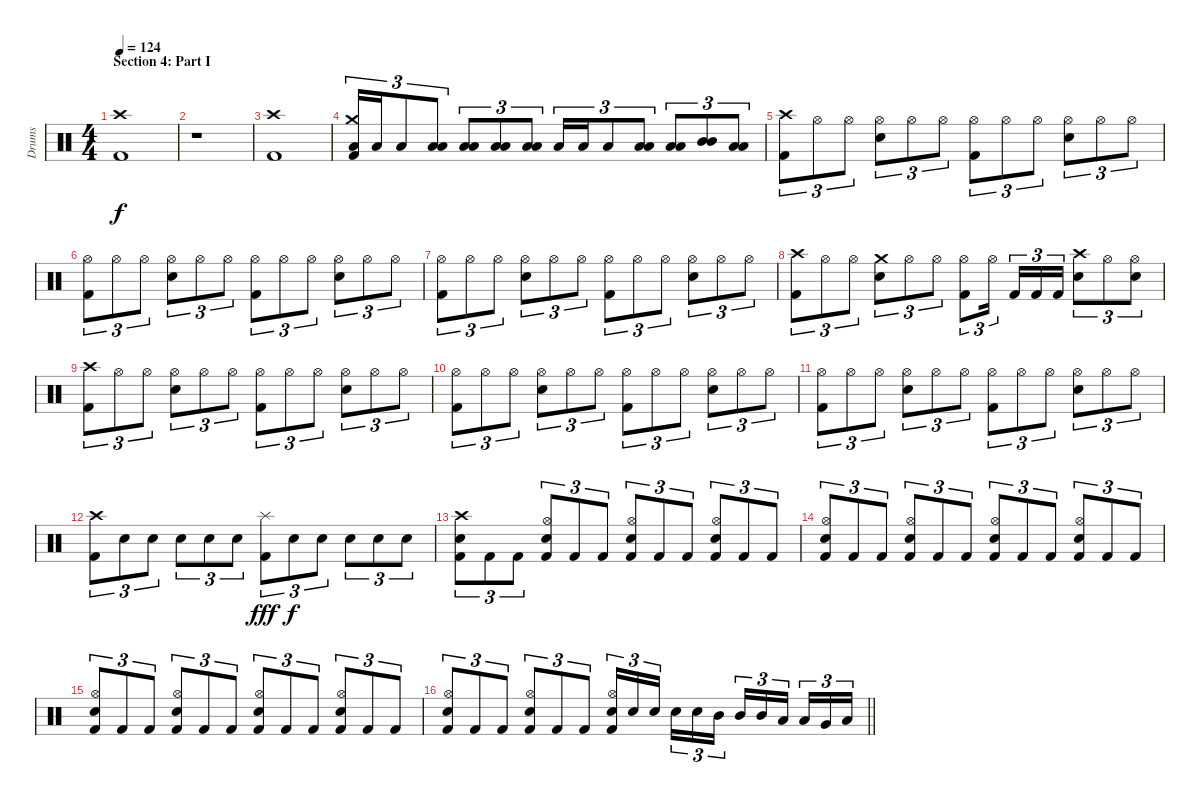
\track ("Drums" "Drums") {instrument percussion}
\staff {score}
\articulation defaults
\ts (4 4)
\section ("" "Section 4: Part I")
\tempo 124
\clef neutral
\ks c
("Crash high (hit)" "Kick (hit) 2").1{dy f} |
r.1 |
("Crash high (hit)" "Kick (hit) 2").1 |
("Crash medium (hit)" "Low Tom (hit)" "Kick (hit) 2").16{tu (3 2)} "Low Tom (hit)".16{tu (3 2)} "Low Tom (hit)".8{tu (3 2)} ("Low Tom (hit)" "Low Tom (hit)").8{tu (3 2) bu 60} ("Low Tom (hit)" "Low Tom (hit)").8{tu (3 2) bu 60} ("Low Tom (hit)" "Low Tom (hit)").8{tu (3 2) bu 60} ("Low Tom (hit)" "Low Tom (hit)").8{tu (3 2) bu 60} "Low Tom (hit)".16{tu (3 2)} "Low Tom (hit)".16{tu (3 2)} "Low Tom (hit)".8{tu (3 2)} ("Low Tom (hit)" "Low Tom (hit)").8{tu (3 2) bu 60} ("Low Tom (hit)" "Low Tom (hit)").8{tu (3 2) bu 60} ("Mid Tom (hit)" "Mid Tom (hit)").8{tu (3 2) bu 60} ("Low Tom (hit)" "Low Tom (hit)").8{tu (3 2) bu 60} |
("Crash high (hit)" "Kick (hit) 2").8{tu (3 2)} "Hi-Hat (open)".8{tu (3 2)} "Hi-Hat (open)".8{tu (3 2)} ("Hi-Hat (open)" "Electric Snare (hit)").8{tu (3 2)} "Hi-Hat (open)".8{tu (3 2)} "Hi-Hat (open)".8{tu (3 2)} ("Hi-Hat (open)" "Kick (hit) 2").8{tu (3 2)} "Hi-Hat (open)".8{tu (3 2)} "Hi-Hat (open)".8{tu (3 2)} ("Hi-Hat (open)" "Electric Snare (hit)").8{tu (3 2)} "Hi-Hat (open)".8{tu (3 2)} "Hi-Hat (open)".8{tu (3 2)} |
("Hi-Hat (open)" "Kick (hit) 2").8{tu (3 2)} "Hi-Hat (open)".8{tu (3 2)} "Hi-Hat (open)".8{tu (3 2)} ("Hi-Hat (open)" "Electric Snare (hit)").8{tu (3 2)} "Hi-Hat (open)".8{tu (3 2)} "Hi-Hat (open)".8{tu (3 2)} ("Hi-Hat (open)" "Kick (hit) 2").8{tu (3 2)} "Hi-Hat (open)".8{tu (3 2)} "Hi-Hat (open)".8{tu (3 2)} ("Hi-Hat (open)" "Electric Snare (hit)").8{tu (3 2)} "Hi-Hat (open)".8{tu (3 2)} "Hi-Hat (open)".8{tu (3 2)} |
("Hi-Hat (open)" "Kick (hit) 2").8{tu (3 2)} "Hi-Hat (open)".8{tu (3 2)} "Hi-Hat (open)".8{tu (3 2)} ("Hi-Hat (open)" "Electric Snare (hit)").8{tu (3 2)} "Hi-Hat (open)".8{tu (3 2)} "Hi-Hat (open)".8{tu (3 2)} ("Hi-Hat (open)" "Kick (hit) 2").8{tu (3 2)} "Hi-Hat (open)".8{tu (3 2)} "Hi-Hat (open)".8{tu (3 2)} ("Hi-Hat (open)" "Electric Snare (hit)").8{tu (3 2)} "Hi-Hat (open)".8{tu (3 2)} "Hi-Hat (open)".8{tu (3 2)} |
("Crash high (hit)" "Kick (hit) 2").8{tu (3 2)} "Hi-Hat (open)".8{tu (3 2)} "Hi-Hat (open)".8{tu (3 2)} ("Crash medium (hit)" "Electric Snare (hit)").8{tu (3 2)} "Hi-Hat (open)".8{tu (3 2)} "Hi-Hat (open)".8{tu (3 2)} ("Hi-Hat (open)" "Kick (hit) 2").8{tu (3 2)} "Hi-Hat (open)".16{tu (3 2) beam splitsecondary} "Kick (hit) 2".16{tu (3 2)} "Kick (hit) 2".16{tu (3 2)} "Kick (hit) 2".16{tu (3 2)} ("Crash high (hit)" "Electric Snare (hit)").8{tu (3 2)} "Hi-Hat (open)".8{tu (3 2)} ("Hi-Hat (open)" "Electric Snare (hit)").8{tu (3 2)} |
("Crash high (hit)" "Kick (hit) 2").8{tu (3 2)} "Hi-Hat (open)".8{tu (3 2)} "Hi-Hat (open)".8{tu (3 2)} ("Hi-Hat (open)" "Electric Snare (hit)").8{tu (3 2)} "Hi-Hat (open)".8{tu (3 2)} "Hi-Hat (open)".8{tu (3 2)} ("Hi-Hat (open)" "Kick (hit) 2").8{tu (3 2)} "Hi-Hat (open)".8{tu (3 2)} "Hi-Hat (open)".8{tu (3 2)} ("Hi-Hat (open)" "Electric Snare (hit)").8{tu (3 2)} "Hi-Hat (open)".8{tu (3 2)} "Hi-Hat (open)".8{tu (3 2)} |
("Hi-Hat (open)" "Kick (hit) 2").8{tu (3 2)} "Hi-Hat (open)".8{tu (3 2)} "Hi-Hat (open)".8{tu (3 2)} ("Hi-Hat (open)" "Electric Snare (hit)").8{tu (3 2)} "Hi-Hat (open)".8{tu (3 2)} "Hi-Hat (open)".8{tu (3 2)} ("Hi-Hat (open)" "Kick (hit) 2").8{tu (3 2)} "Hi-Hat (open)".8{tu (3 2)} "Hi-Hat (open)".8{tu (3 2)} ("Hi-Hat (open)" "Electric Snare (hit)").8{tu (3 2)} "Hi-Hat (open)".8{tu (3 2)} "Hi-Hat (open)".8{tu (3 2)} |
("Hi-Hat (open)" "Kick (hit) 2").8{tu (3 2)} "Hi-Hat (open)".8{tu (3 2)} "Hi-Hat (open)".8{tu (3 2)} ("Hi-Hat (open)" "Electric Snare (hit)").8{tu (3 2)} "Hi-Hat (open)".8{tu (3 2)} "Hi-Hat (open)".8{tu (3 2)} ("Hi-Hat (open)" "Kick (hit) 2").8{tu (3 2)} "Hi-Hat (open)".8{tu (3 2)} "Hi-Hat (open)".8{tu (3 2)} ("Hi-Hat (open)" "Electric Snare (hit)").8{tu (3 2)} "Hi-Hat (open)".8{tu (3 2)} "Hi-Hat (open)".8{tu (3 2)} |
("Crash high (hit)" "Kick (hit) 2").8{tu (3 2)} "Electric Snare (hit)".8{tu (3 2)} "Electric Snare (hit)".8{tu (3 2)} "Electric Snare (hit)".8{tu (3 2)} "Electric Snare (hit)".8{tu (3 2)} "Electric Snare (hit)".8{tu (3 2)} ("Splash (hit)" "Kick (hit) 2").8{tu (3 2) dy fff} "Electric Snare (hit)".8{tu (3 2) dy f} "Electric Snare (hit)".8{tu (3 2)} "Electric Snare (hit)".8{tu (3 2)} "Electric Snare (hit)".8{tu (3 2)} "Electric Snare (hit)".8{tu (3 2)} |
("Crash high (hit)" "Electric Snare (hit)" "Kick (hit) 2").8{tu (3 2)} "Kick (hit) 2".8{tu (3 2)} "Kick (hit) 2".8{tu (3 2)} ("Hi-Hat (open)" "Electric Snare (hit)" "Kick (hit) 2").8{tu (3 2)} "Kick (hit) 2".8{tu (3 2)} "Kick (hit) 2".8{tu (3 2)} ("Hi-Hat (open)" "Electric Snare (hit)" "Kick (hit) 2").8{tu (3 2)} "Kick (hit) 2".8{tu (3 2)} "Kick (hit) 2".8{tu (3 2)} ("Hi-Hat (open)" "Electric Snare (hit)" "Kick (hit) 2").8{tu (3 2)} "Kick (hit) 2".8{tu (3 2)} "Kick (hit) 2".8{tu (3 2)} |
("Hi-Hat (open)" "Electric Snare (hit)" "Kick (hit) 2").8{tu (3 2)} "Kick (hit) 2".8{tu (3 2)} "Kick (hit) 2".8{tu (3 2)} ("Hi-Hat (open)" "Electric Snare (hit)" "Kick (hit) 2").8{tu (3 2)} "Kick (hit) 2".8{tu (3 2)} "Kick (hit) 2".8{tu (3 2)} ("Hi-Hat (open)" "Electric Snare (hit)" "Kick (hit) 2").8{tu (3 2)} "Kick (hit) 2".8{tu (3 2)} "Kick (hit) 2".8{tu (3 2)} ("Hi-Hat (open)" "Electric Snare (hit)" "Kick (hit) 2").8{tu (3 2)} "Kick (hit) 2".8{tu (3 2)} "Kick (hit) 2".8{tu (3 2)} |
("Hi-Hat (open)" "Electric Snare (hit)" "Kick (hit) 2").8{tu (3 2)} "Kick (hit) 2".8{tu (3 2)} "Kick (hit) 2".8{tu (3 2)} ("Hi-Hat (open)" "Electric Snare (hit)" "Kick (hit) 2").8{tu (3 2)} "Kick (hit) 2".8{tu (3 2)} "Kick (hit) 2".8{tu (3 2)} ("Hi-Hat (open)" "Electric Snare (hit)" "Kick (hit) 2").8{tu (3 2)} "Kick (hit) 2".8{tu (3 2)} "Kick (hit) 2".8{tu (3 2)} ("Hi-Hat (open)" "Electric Snare (hit)" "Kick (hit) 2").8{tu (3 2)} "Kick (hit) 2".8{tu (3 2)} "Kick (hit) 2".8{tu (3 2)} |
\barLineRight lightlight
("Hi-Hat (open)" "Electric Snare (hit)" "Kick (hit) 2").8{tu (3 2)} "Kick (hit) 2".8{tu (3 2)} "Kick (hit) 2".8{tu (3 2)} ("Hi-Hat (open)" "Electric Snare (hit)" "Kick (hit) 2").8{tu (3 2)} "Kick (hit) 2".8{tu (3 2)} "Kick (hit) 2".8{tu (3 2)} ("Hi-Hat (open)" "Electric Snare (hit)" "Kick (hit) 2").16{tu (3 2)} "Electric Snare (hit)".16{tu (3 2)} "Electric Snare (hit)".16{tu (3 2) beam splitsecondary} "Electric Snare (hit)".16{tu (3 2)} "Electric Snare (hit)".16{tu (3 2)} "Mid Tom (hit)".16{tu (3 2)} "Mid Tom (hit)".16{tu (3 2)} "Mid Tom (hit)".16{tu (3 2)} "Low Tom (hit)".16{tu (3 2) beam splitsecondary} "Low Tom (hit)".16{tu (3 2)} "Very Low Tom (hit)".16{tu (3 2)} "Low Floor Tom (hit)".16{tu (3 2)}
